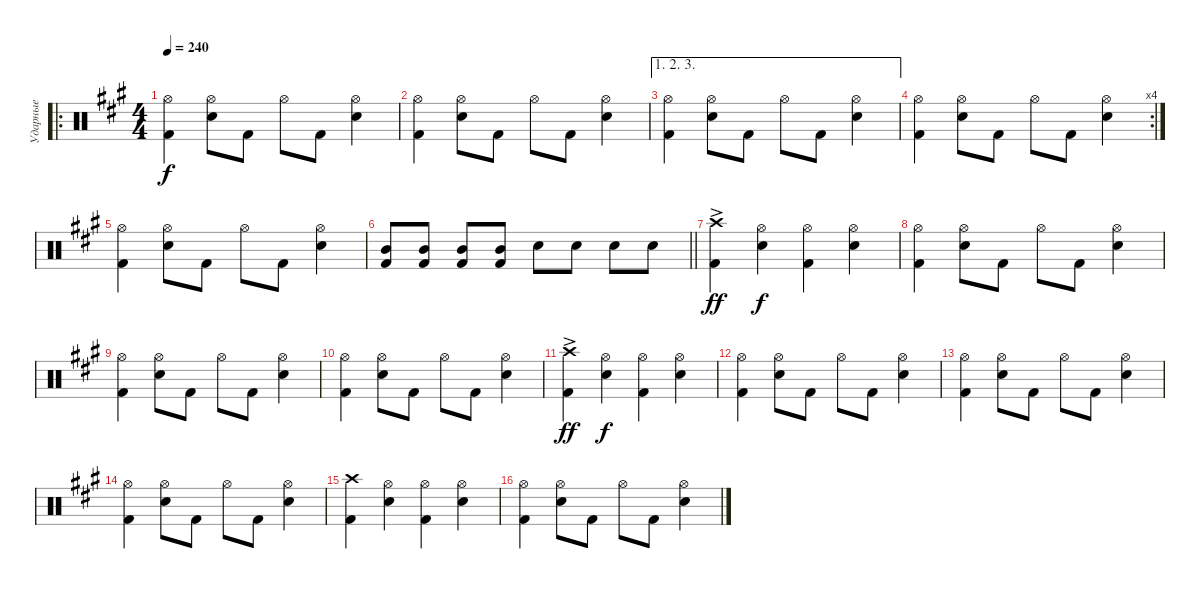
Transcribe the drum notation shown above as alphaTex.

\track ("Ударные" "Ударные") {instrument percussion}
\staff {score}
\articulation defaults
\ro
\ts (4 4)
\tempo 240
\clef neutral
\ks a
("Kick (hit) 2" "Hi-Hat (open)").4{dy f} ("Snare (hit) 2" "Hi-Hat (open)").8 "Kick (hit) 2".8 "Hi-Hat (open)".8 "Kick (hit) 2".8 ("Snare (hit) 2" "Hi-Hat (open)").4 |
("Kick (hit) 2" "Hi-Hat (open)").4 ("Snare (hit) 2" "Hi-Hat (open)").8 "Kick (hit) 2".8 "Hi-Hat (open)".8 "Kick (hit) 2".8 ("Snare (hit) 2" "Hi-Hat (open)").4 |
\ae (1 2 3)
("Kick (hit) 2" "Hi-Hat (open)").4 ("Snare (hit) 2" "Hi-Hat (open)").8 "Kick (hit) 2".8 "Hi-Hat (open)".8 "Kick (hit) 2".8 ("Snare (hit) 2" "Hi-Hat (open)").4 |
\rc 4
("Kick (hit) 2" "Hi-Hat (open)").4 ("Snare (hit) 2" "Hi-Hat (open)").8 "Kick (hit) 2".8 "Hi-Hat (open)".8 "Kick (hit) 2".8 ("Snare (hit) 2" "Hi-Hat (open)").4 |
("Kick (hit) 2" "Hi-Hat (open)").4 ("Snare (hit) 2" "Hi-Hat (open)").8 "Kick (hit) 2".8 "Hi-Hat (open)".8 "Kick (hit) 2".8 ("Snare (hit) 2" "Hi-Hat (open)").4 |
\barLineRight lightlight
("Kick (hit) 2" "Mid Tom (hit)").8 ("Kick (hit) 2" "Mid Tom (hit)").8 ("Kick (hit) 2" "Mid Tom (hit)").8 ("Kick (hit) 2" "Mid Tom (hit)").8 "Snare (hit) 2".8 "Snare (hit) 2".8 "Snare (hit) 2".8 "Snare (hit) 2".8 |
("Kick (hit) 2" "Crash high (hit)"{ac}).4{dy ff} ("Snare (hit) 2" "Hi-Hat (open)").4{dy f} ("Kick (hit) 2" "Hi-Hat (open)").4 ("Snare (hit) 2" "Hi-Hat (open)").4 |
("Kick (hit) 2" "Hi-Hat (open)").4 ("Snare (hit) 2" "Hi-Hat (open)").8 "Kick (hit) 2".8 "Hi-Hat (open)".8 "Kick (hit) 2".8 ("Snare (hit) 2" "Hi-Hat (open)").4 |
("Kick (hit) 2" "Hi-Hat (open)").4 ("Snare (hit) 2" "Hi-Hat (open)").8 "Kick (hit) 2".8 "Hi-Hat (open)".8 "Kick (hit) 2".8 ("Snare (hit) 2" "Hi-Hat (open)").4 |
("Kick (hit) 2" "Hi-Hat (open)").4 ("Snare (hit) 2" "Hi-Hat (open)").8 "Kick (hit) 2".8 "Hi-Hat (open)".8 "Kick (hit) 2".8 ("Snare (hit) 2" "Hi-Hat (open)").4 |
("Kick (hit) 2" "Crash high (hit)"{ac}).4{dy ff} ("Snare (hit) 2" "Hi-Hat (open)").4{dy f} ("Kick (hit) 2" "Hi-Hat (open)").4 ("Snare (hit) 2" "Hi-Hat (open)").4 |
("Kick (hit) 2" "Hi-Hat (open)").4 ("Snare (hit) 2" "Hi-Hat (open)").8 "Kick (hit) 2".8 "Hi-Hat (open)".8 "Kick (hit) 2".8 ("Snare (hit) 2" "Hi-Hat (open)").4 |
("Kick (hit) 2" "Hi-Hat (open)").4 ("Snare (hit) 2" "Hi-Hat (open)").8 "Kick (hit) 2".8 "Hi-Hat (open)".8 "Kick (hit) 2".8 ("Snare (hit) 2" "Hi-Hat (open)").4 |
("Kick (hit) 2" "Hi-Hat (open)").4 ("Snare (hit) 2" "Hi-Hat (open)").8 "Kick (hit) 2".8 "Hi-Hat (open)".8 "Kick (hit) 2".8 ("Snare (hit) 2" "Hi-Hat (open)").4 |
("Kick (hit) 2" "Crash high (hit)").4 ("Snare (hit) 2" "Hi-Hat (open)").4 ("Kick (hit) 2" "Hi-Hat (open)").4 ("Snare (hit) 2" "Hi-Hat (open)").4 |
("Kick (hit) 2" "Hi-Hat (open)").4 ("Snare (hit) 2" "Hi-Hat (open)").8 "Kick (hit) 2".8 "Hi-Hat (open)".8 "Kick (hit) 2".8 ("Snare (hit) 2" "Hi-Hat (open)").4
